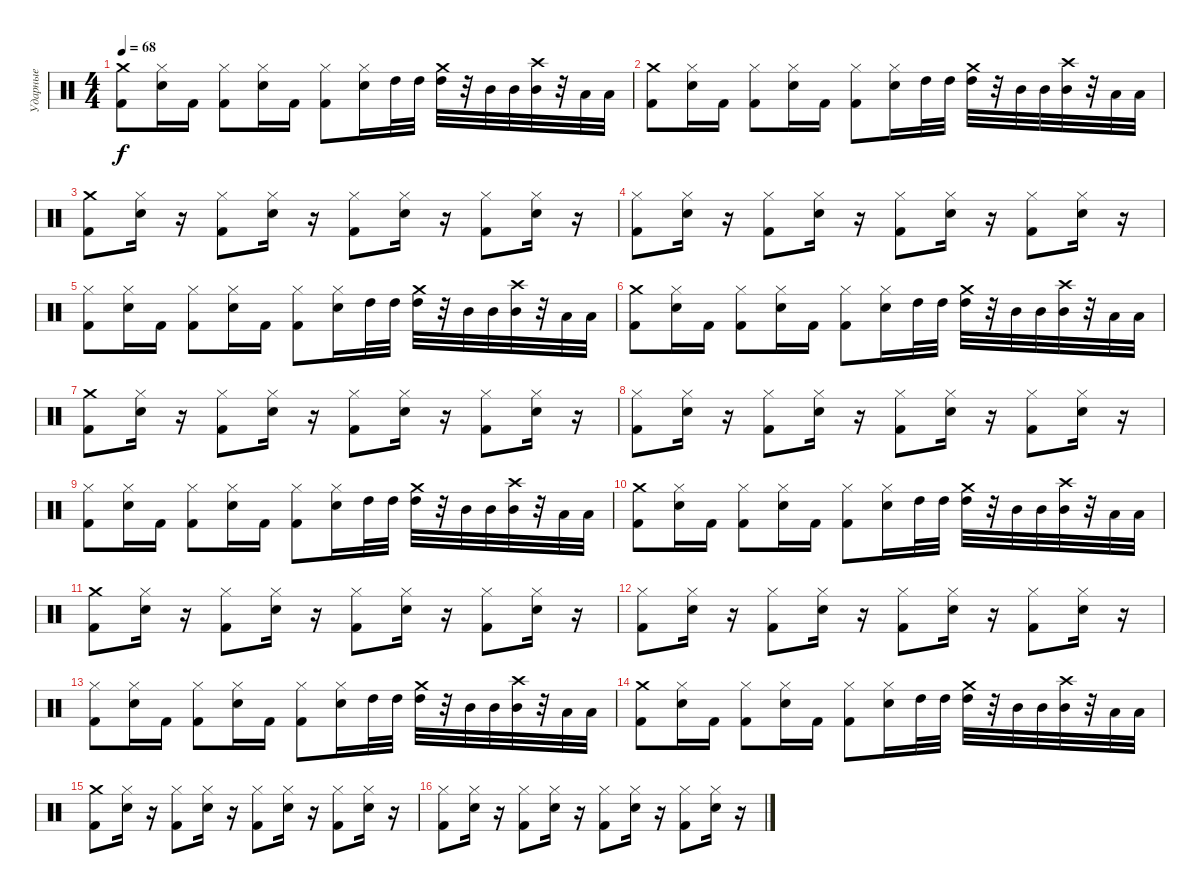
\track ("Ударные" "Ударные") {instrument percussion}
\staff {score}
\articulation defaults
\ts (4 4)
\tempo 68
\clef neutral
\ks c
("Crash medium (hit)" "Kick (hit) 2").8{dy f} ("Hi-Hat (closed)" "Snare (hit) 2").16 "Kick (hit) 2".16 ("Hi-Hat (closed)" "Kick (hit) 2").8 ("Hi-Hat (closed)" "Snare (hit) 2").16 "Kick (hit) 2".16 ("Hi-Hat (closed)" "Kick (hit) 2").8 ("Hi-Hat (closed)" "Snare (hit) 2").16 "High Tom (hit)".32 "High Tom (hit)".32 ("High Tom (hit)" "Crash medium (hit)").32 r.32 "Mid Tom (hit)".32 "Mid Tom (hit)".32 ("Mid Tom (hit)" "Crash high (hit)").32 r.32 "Low Tom (hit)".32 "Low Tom (hit)".32 |
("Crash medium (hit)" "Kick (hit) 2").8 ("Hi-Hat (closed)" "Snare (hit) 2").16 "Kick (hit) 2".16 ("Hi-Hat (closed)" "Kick (hit) 2").8 ("Hi-Hat (closed)" "Snare (hit) 2").16 "Kick (hit) 2".16 ("Hi-Hat (closed)" "Kick (hit) 2").8 ("Hi-Hat (closed)" "Snare (hit) 2").16 "High Tom (hit)".32 "High Tom (hit)".32 ("High Tom (hit)" "Crash medium (hit)").32 r.32 "Mid Tom (hit)".32 "Mid Tom (hit)".32 ("Mid Tom (hit)" "Crash high (hit)").32 r.32 "Low Tom (hit)".32 "Low Tom (hit)".32 |
("Crash medium (hit)" "Kick (hit) 2").8 ("Hi-Hat (closed)" "Snare (hit) 2").16 r.16 ("Hi-Hat (closed)" "Kick (hit) 2").8 ("Hi-Hat (closed)" "Snare (hit) 2").16 r.16 ("Hi-Hat (closed)" "Kick (hit) 2").8 ("Hi-Hat (closed)" "Snare (hit) 2").16 r.16 ("Hi-Hat (closed)" "Kick (hit) 2").8 ("Hi-Hat (closed)" "Snare (hit) 2").16 r.16 |
("Hi-Hat (closed)" "Kick (hit) 2").8 ("Hi-Hat (closed)" "Snare (hit) 2").16 r.16 ("Hi-Hat (closed)" "Kick (hit) 2").8 ("Hi-Hat (closed)" "Snare (hit) 2").16 r.16 ("Hi-Hat (closed)" "Kick (hit) 2").8 ("Hi-Hat (closed)" "Snare (hit) 2").16 r.16 ("Hi-Hat (closed)" "Kick (hit) 2").8 ("Hi-Hat (closed)" "Snare (hit) 2").16 r.16 |
("Hi-Hat (closed)" "Kick (hit) 2").8 ("Hi-Hat (closed)" "Snare (hit) 2").16 "Kick (hit) 2".16 ("Hi-Hat (closed)" "Kick (hit) 2").8 ("Hi-Hat (closed)" "Snare (hit) 2").16 "Kick (hit) 2".16 ("Hi-Hat (closed)" "Kick (hit) 2").8 ("Hi-Hat (closed)" "Snare (hit) 2").16 "High Tom (hit)".32 "High Tom (hit)".32 ("High Tom (hit)" "Crash medium (hit)").32 r.32 "Mid Tom (hit)".32 "Mid Tom (hit)".32 ("Mid Tom (hit)" "Crash high (hit)").32 r.32 "Low Tom (hit)".32 "Low Tom (hit)".32 |
("Crash medium (hit)" "Kick (hit) 2").8 ("Hi-Hat (closed)" "Snare (hit) 2").16 "Kick (hit) 2".16 ("Hi-Hat (closed)" "Kick (hit) 2").8 ("Hi-Hat (closed)" "Snare (hit) 2").16 "Kick (hit) 2".16 ("Hi-Hat (closed)" "Kick (hit) 2").8 ("Hi-Hat (closed)" "Snare (hit) 2").16 "High Tom (hit)".32 "High Tom (hit)".32 ("High Tom (hit)" "Crash medium (hit)").32 r.32 "Mid Tom (hit)".32 "Mid Tom (hit)".32 ("Mid Tom (hit)" "Crash high (hit)").32 r.32 "Low Tom (hit)".32 "Low Tom (hit)".32 |
("Crash medium (hit)" "Kick (hit) 2").8 ("Hi-Hat (closed)" "Snare (hit) 2").16 r.16 ("Hi-Hat (closed)" "Kick (hit) 2").8 ("Hi-Hat (closed)" "Snare (hit) 2").16 r.16 ("Hi-Hat (closed)" "Kick (hit) 2").8 ("Hi-Hat (closed)" "Snare (hit) 2").16 r.16 ("Hi-Hat (closed)" "Kick (hit) 2").8 ("Hi-Hat (closed)" "Snare (hit) 2").16 r.16 |
("Hi-Hat (closed)" "Kick (hit) 2").8 ("Hi-Hat (closed)" "Snare (hit) 2").16 r.16 ("Hi-Hat (closed)" "Kick (hit) 2").8 ("Hi-Hat (closed)" "Snare (hit) 2").16 r.16 ("Hi-Hat (closed)" "Kick (hit) 2").8 ("Hi-Hat (closed)" "Snare (hit) 2").16 r.16 ("Hi-Hat (closed)" "Kick (hit) 2").8 ("Hi-Hat (closed)" "Snare (hit) 2").16 r.16 |
("Hi-Hat (closed)" "Kick (hit) 2").8 ("Hi-Hat (closed)" "Snare (hit) 2").16 "Kick (hit) 2".16 ("Hi-Hat (closed)" "Kick (hit) 2").8 ("Hi-Hat (closed)" "Snare (hit) 2").16 "Kick (hit) 2".16 ("Hi-Hat (closed)" "Kick (hit) 2").8 ("Hi-Hat (closed)" "Snare (hit) 2").16 "High Tom (hit)".32 "High Tom (hit)".32 ("High Tom (hit)" "Crash medium (hit)").32 r.32 "Mid Tom (hit)".32 "Mid Tom (hit)".32 ("Mid Tom (hit)" "Crash high (hit)").32 r.32 "Low Tom (hit)".32 "Low Tom (hit)".32 |
("Crash medium (hit)" "Kick (hit) 2").8 ("Hi-Hat (closed)" "Snare (hit) 2").16 "Kick (hit) 2".16 ("Hi-Hat (closed)" "Kick (hit) 2").8 ("Hi-Hat (closed)" "Snare (hit) 2").16 "Kick (hit) 2".16 ("Hi-Hat (closed)" "Kick (hit) 2").8 ("Hi-Hat (closed)" "Snare (hit) 2").16 "High Tom (hit)".32 "High Tom (hit)".32 ("High Tom (hit)" "Crash medium (hit)").32 r.32 "Mid Tom (hit)".32 "Mid Tom (hit)".32 ("Mid Tom (hit)" "Crash high (hit)").32 r.32 "Low Tom (hit)".32 "Low Tom (hit)".32 |
("Crash medium (hit)" "Kick (hit) 2").8 ("Hi-Hat (closed)" "Snare (hit) 2").16 r.16 ("Hi-Hat (closed)" "Kick (hit) 2").8 ("Hi-Hat (closed)" "Snare (hit) 2").16 r.16 ("Hi-Hat (closed)" "Kick (hit) 2").8 ("Hi-Hat (closed)" "Snare (hit) 2").16 r.16 ("Hi-Hat (closed)" "Kick (hit) 2").8 ("Hi-Hat (closed)" "Snare (hit) 2").16 r.16 |
("Hi-Hat (closed)" "Kick (hit) 2").8 ("Hi-Hat (closed)" "Snare (hit) 2").16 r.16 ("Hi-Hat (closed)" "Kick (hit) 2").8 ("Hi-Hat (closed)" "Snare (hit) 2").16 r.16 ("Hi-Hat (closed)" "Kick (hit) 2").8 ("Hi-Hat (closed)" "Snare (hit) 2").16 r.16 ("Hi-Hat (closed)" "Kick (hit) 2").8 ("Hi-Hat (closed)" "Snare (hit) 2").16 r.16 |
("Hi-Hat (closed)" "Kick (hit) 2").8 ("Hi-Hat (closed)" "Snare (hit) 2").16 "Kick (hit) 2".16 ("Hi-Hat (closed)" "Kick (hit) 2").8 ("Hi-Hat (closed)" "Snare (hit) 2").16 "Kick (hit) 2".16 ("Hi-Hat (closed)" "Kick (hit) 2").8 ("Hi-Hat (closed)" "Snare (hit) 2").16 "High Tom (hit)".32 "High Tom (hit)".32 ("High Tom (hit)" "Crash medium (hit)").32 r.32 "Mid Tom (hit)".32 "Mid Tom (hit)".32 ("Mid Tom (hit)" "Crash high (hit)").32 r.32 "Low Tom (hit)".32 "Low Tom (hit)".32 |
("Crash medium (hit)" "Kick (hit) 2").8 ("Hi-Hat (closed)" "Snare (hit) 2").16 "Kick (hit) 2".16 ("Hi-Hat (closed)" "Kick (hit) 2").8 ("Hi-Hat (closed)" "Snare (hit) 2").16 "Kick (hit) 2".16 ("Hi-Hat (closed)" "Kick (hit) 2").8 ("Hi-Hat (closed)" "Snare (hit) 2").16 "High Tom (hit)".32 "High Tom (hit)".32 ("High Tom (hit)" "Crash medium (hit)").32 r.32 "Mid Tom (hit)".32 "Mid Tom (hit)".32 ("Mid Tom (hit)" "Crash high (hit)").32 r.32 "Low Tom (hit)".32 "Low Tom (hit)".32 |
("Crash medium (hit)" "Kick (hit) 2").8 ("Hi-Hat (closed)" "Snare (hit) 2").16 r.16 ("Hi-Hat (closed)" "Kick (hit) 2").8 ("Hi-Hat (closed)" "Snare (hit) 2").16 r.16 ("Hi-Hat (closed)" "Kick (hit) 2").8 ("Hi-Hat (closed)" "Snare (hit) 2").16 r.16 ("Hi-Hat (closed)" "Kick (hit) 2").8 ("Hi-Hat (closed)" "Snare (hit) 2").16 r.16 |
("Hi-Hat (closed)" "Kick (hit) 2").8 ("Hi-Hat (closed)" "Snare (hit) 2").16 r.16 ("Hi-Hat (closed)" "Kick (hit) 2").8 ("Hi-Hat (closed)" "Snare (hit) 2").16 r.16 ("Hi-Hat (closed)" "Kick (hit) 2").8 ("Hi-Hat (closed)" "Snare (hit) 2").16 r.16 ("Hi-Hat (closed)" "Kick (hit) 2").8 ("Hi-Hat (closed)" "Snare (hit) 2").16 r.16
